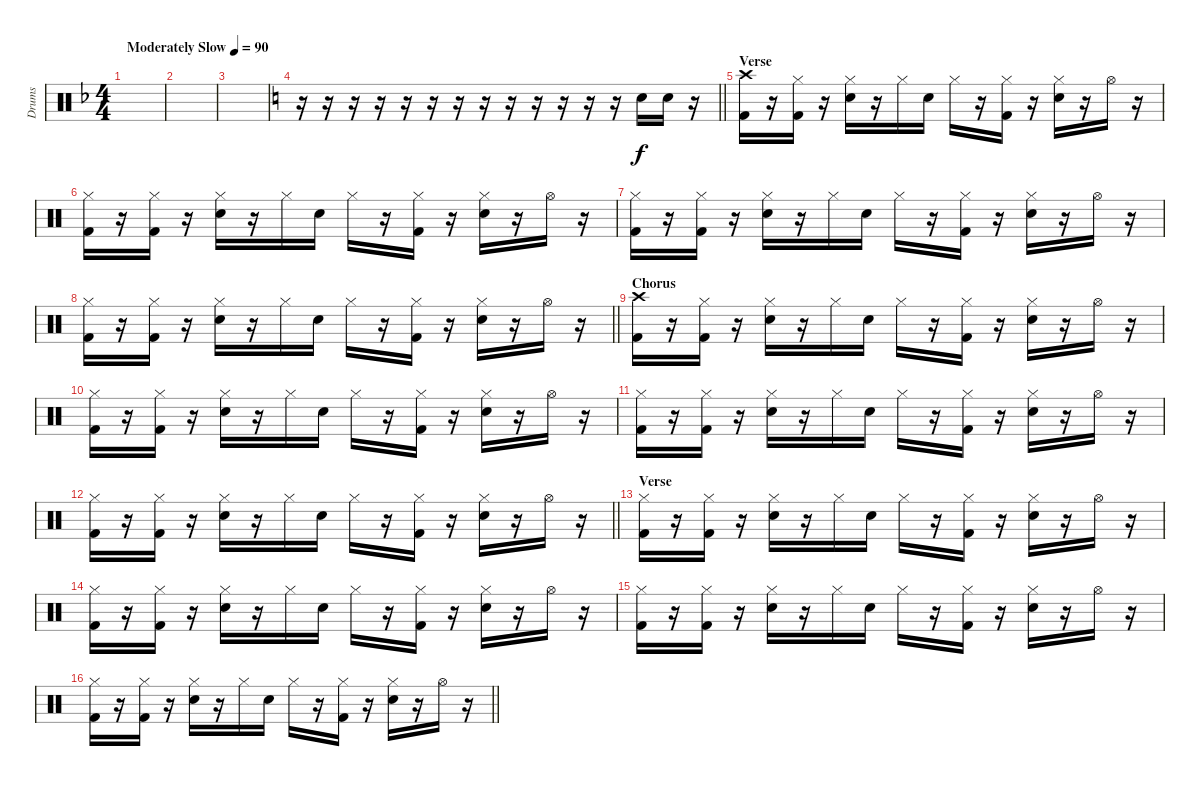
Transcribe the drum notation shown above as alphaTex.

\track ("Drums" "Drums") {instrument percussion}
\staff {score}
\articulation defaults
\ts (4 4)
\tempo (90 "Moderately Slow")
\clef neutral
\ks f
|
|
|
\barLineRight lightlight
\ks c
r.16 r.16 r.16 r.16 r.16 r.16 r.16 r.16 r.16 r.16 r.16 r.16 r.16 "Snare (hit) 2".16 "Snare (hit) 2".16 r.16 |
\section ("" "Verse")
("Crash high (hit)" "Kick (hit) 2").16 r.16 ("Hi-Hat (closed)" "Kick (hit) 2").16 r.16 ("Hi-Hat (closed)" "Snare (hit) 2").16 r.16 "Hi-Hat (closed)".16 "Snare (hit) 2".16 "Hi-Hat (closed)".16 r.16 ("Hi-Hat (closed)" "Kick (hit) 2").16 r.16 ("Hi-Hat (closed)" "Snare (hit) 2").16 r.16 "Hi-Hat (open)".16 r.16 |
("Hi-Hat (closed)" "Kick (hit) 2").16 r.16 ("Hi-Hat (closed)" "Kick (hit) 2").16 r.16 ("Hi-Hat (closed)" "Snare (hit) 2").16 r.16 "Hi-Hat (closed)".16 "Snare (hit) 2".16 "Hi-Hat (closed)".16 r.16 ("Hi-Hat (closed)" "Kick (hit) 2").16 r.16 ("Hi-Hat (closed)" "Snare (hit) 2").16 r.16 "Hi-Hat (open)".16 r.16 |
("Hi-Hat (closed)" "Kick (hit) 2").16 r.16 ("Hi-Hat (closed)" "Kick (hit) 2").16 r.16 ("Hi-Hat (closed)" "Snare (hit) 2").16 r.16 "Hi-Hat (closed)".16 "Snare (hit) 2".16 "Hi-Hat (closed)".16 r.16 ("Hi-Hat (closed)" "Kick (hit) 2").16 r.16 ("Hi-Hat (closed)" "Snare (hit) 2").16 r.16 "Hi-Hat (open)".16 r.16 |
\barLineRight lightlight
("Hi-Hat (closed)" "Kick (hit) 2").16 r.16 ("Hi-Hat (closed)" "Kick (hit) 2").16 r.16 ("Hi-Hat (closed)" "Snare (hit) 2").16 r.16 "Hi-Hat (closed)".16 "Snare (hit) 2".16 "Hi-Hat (closed)".16 r.16 ("Hi-Hat (closed)" "Kick (hit) 2").16 r.16 ("Hi-Hat (closed)" "Snare (hit) 2").16 r.16 "Hi-Hat (open)".16 r.16 |
\section ("" "Chorus")
("Crash high (hit)" "Kick (hit) 2").16 r.16 ("Hi-Hat (closed)" "Kick (hit) 2").16 r.16 ("Hi-Hat (closed)" "Snare (hit) 2").16 r.16 "Hi-Hat (closed)".16 "Snare (hit) 2".16 "Hi-Hat (closed)".16 r.16 ("Hi-Hat (closed)" "Kick (hit) 2").16 r.16 ("Hi-Hat (closed)" "Snare (hit) 2").16 r.16 "Hi-Hat (open)".16 r.16 |
("Hi-Hat (closed)" "Kick (hit) 2").16 r.16 ("Hi-Hat (closed)" "Kick (hit) 2").16 r.16 ("Hi-Hat (closed)" "Snare (hit) 2").16 r.16 "Hi-Hat (closed)".16 "Snare (hit) 2".16 "Hi-Hat (closed)".16 r.16 ("Hi-Hat (closed)" "Kick (hit) 2").16 r.16 ("Hi-Hat (closed)" "Snare (hit) 2").16 r.16 "Hi-Hat (open)".16 r.16 |
("Hi-Hat (closed)" "Kick (hit) 2").16 r.16 ("Hi-Hat (closed)" "Kick (hit) 2").16 r.16 ("Hi-Hat (closed)" "Snare (hit) 2").16 r.16 "Hi-Hat (closed)".16 "Snare (hit) 2".16 "Hi-Hat (closed)".16 r.16 ("Hi-Hat (closed)" "Kick (hit) 2").16 r.16 ("Hi-Hat (closed)" "Snare (hit) 2").16 r.16 "Hi-Hat (open)".16 r.16 |
\barLineRight lightlight
("Hi-Hat (closed)" "Kick (hit) 2").16 r.16 ("Hi-Hat (closed)" "Kick (hit) 2").16 r.16 ("Hi-Hat (closed)" "Snare (hit) 2").16 r.16 "Hi-Hat (closed)".16 "Snare (hit) 2".16 "Hi-Hat (closed)".16 r.16 ("Hi-Hat (closed)" "Kick (hit) 2").16 r.16 ("Hi-Hat (closed)" "Snare (hit) 2").16 r.16 "Hi-Hat (open)".16 r.16 |
\section ("" "Verse")
("Hi-Hat (closed)" "Kick (hit) 2").16 r.16 ("Hi-Hat (closed)" "Kick (hit) 2").16 r.16 ("Hi-Hat (closed)" "Snare (hit) 2").16 r.16 "Hi-Hat (closed)".16 "Snare (hit) 2".16 "Hi-Hat (closed)".16 r.16 ("Hi-Hat (closed)" "Kick (hit) 2").16 r.16 ("Hi-Hat (closed)" "Snare (hit) 2").16 r.16 "Hi-Hat (open)".16 r.16 |
("Hi-Hat (closed)" "Kick (hit) 2").16 r.16 ("Hi-Hat (closed)" "Kick (hit) 2").16 r.16 ("Hi-Hat (closed)" "Snare (hit) 2").16 r.16 "Hi-Hat (closed)".16 "Snare (hit) 2".16 "Hi-Hat (closed)".16 r.16 ("Hi-Hat (closed)" "Kick (hit) 2").16 r.16 ("Hi-Hat (closed)" "Snare (hit) 2").16 r.16 "Hi-Hat (open)".16 r.16 |
("Hi-Hat (closed)" "Kick (hit) 2").16 r.16 ("Hi-Hat (closed)" "Kick (hit) 2").16 r.16 ("Hi-Hat (closed)" "Snare (hit) 2").16 r.16 "Hi-Hat (closed)".16 "Snare (hit) 2".16 "Hi-Hat (closed)".16 r.16 ("Hi-Hat (closed)" "Kick (hit) 2").16 r.16 ("Hi-Hat (closed)" "Snare (hit) 2").16 r.16 "Hi-Hat (open)".16 r.16 |
\barLineRight lightlight
("Hi-Hat (closed)" "Kick (hit) 2").16 r.16 ("Hi-Hat (closed)" "Kick (hit) 2").16 r.16 ("Hi-Hat (closed)" "Snare (hit) 2").16 r.16 "Hi-Hat (closed)".16 "Snare (hit) 2".16 "Hi-Hat (closed)".16 r.16 ("Hi-Hat (closed)" "Kick (hit) 2").16 r.16 ("Hi-Hat (closed)" "Snare (hit) 2").16 r.16 "Hi-Hat (open)".16 r.16
